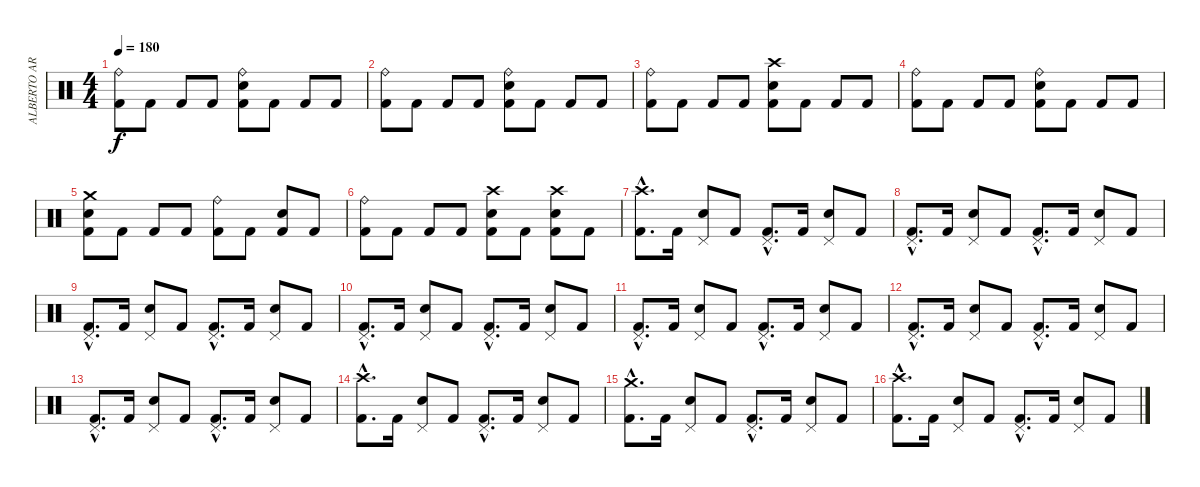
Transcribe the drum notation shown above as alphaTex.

\track ("ALBERTO ARDINES" "ALBERTO AR") {instrument percussion}
\staff {score}
\articulation defaults
\ts (4 4)
\tempo 180
\clef neutral
\ks c
("Ride (bell)" "Kick (hit) 2").8{dy f} "Kick (hit) 2".8 "Kick (hit) 2".8 "Kick (hit) 2".8 ("Ride (bell)" "Electric Snare (hit)" "Kick (hit) 2").8 "Kick (hit) 2".8 "Kick (hit) 2".8 "Kick (hit) 2".8 |
("Ride (bell)" "Kick (hit) 2").8 "Kick (hit) 2".8 "Kick (hit) 2".8 "Kick (hit) 2".8 ("Ride (bell)" "Electric Snare (hit)" "Kick (hit) 2").8 "Kick (hit) 2".8 "Kick (hit) 2".8 "Kick (hit) 2".8 |
("Ride (bell)" "Kick (hit) 2").8 "Kick (hit) 2".8 "Kick (hit) 2".8 "Kick (hit) 2".8 ("Crash high (hit)" "Electric Snare (hit)" "Kick (hit) 2").8 "Kick (hit) 2".8 "Kick (hit) 2".8 "Kick (hit) 2".8 |
("Ride (bell)" "Kick (hit) 2").8 "Kick (hit) 2".8 "Kick (hit) 2".8 "Kick (hit) 2".8 ("Ride (bell)" "Electric Snare (hit)" "Kick (hit) 2").8 "Kick (hit) 2".8 "Kick (hit) 2".8 "Kick (hit) 2".8 |
("Crash medium (hit)" "Electric Snare (hit)" "Kick (hit) 2").8 "Kick (hit) 2".8 "Kick (hit) 2".8 "Kick (hit) 2".8 ("Ride (bell)" "Kick (hit) 2").8 "Kick (hit) 2".8 ("Electric Snare (hit)" "Kick (hit) 2").8 "Kick (hit) 2".8 |
("Ride (bell)" "Kick (hit) 2").8 "Kick (hit) 2".8 "Kick (hit) 2".8 "Kick (hit) 2".8 ("Crash high (hit)" "Electric Snare (hit)" "Kick (hit) 2").8 "Kick (hit) 2".8 ("Crash high (hit)" "Electric Snare (hit)" "Kick (hit) 2").8 "Kick (hit) 2".8 |
("Crash high (hit)"{hac} "Kick (hit) 2"{hac}).8{d} "Kick (hit) 2".16 ("Pedal Hi-Hat (hit)" "Electric Snare (hit)").8 "Kick (hit) 2".8 ("Pedal Hi-Hat (hit)"{hac} "Kick (hit) 2"{hac}).8{d} "Kick (hit) 2".16 ("Pedal Hi-Hat (hit)" "Electric Snare (hit)").8 "Kick (hit) 2".8 |
("Pedal Hi-Hat (hit)"{hac} "Kick (hit) 2"{hac}).8{d} "Kick (hit) 2".16 ("Pedal Hi-Hat (hit)" "Electric Snare (hit)").8 "Kick (hit) 2".8 ("Pedal Hi-Hat (hit)"{hac} "Kick (hit) 2"{hac}).8{d} "Kick (hit) 2".16 ("Pedal Hi-Hat (hit)" "Electric Snare (hit)").8 "Kick (hit) 2".8 |
("Pedal Hi-Hat (hit)"{hac} "Kick (hit) 2"{hac}).8{d} "Kick (hit) 2".16 ("Pedal Hi-Hat (hit)" "Electric Snare (hit)").8 "Kick (hit) 2".8 ("Pedal Hi-Hat (hit)"{hac} "Kick (hit) 2"{hac}).8{d} "Kick (hit) 2".16 ("Pedal Hi-Hat (hit)" "Electric Snare (hit)").8 "Kick (hit) 2".8 |
("Pedal Hi-Hat (hit)"{hac} "Kick (hit) 2"{hac}).8{d} "Kick (hit) 2".16 ("Pedal Hi-Hat (hit)" "Electric Snare (hit)").8 "Kick (hit) 2".8 ("Pedal Hi-Hat (hit)"{hac} "Kick (hit) 2"{hac}).8{d} "Kick (hit) 2".16 ("Pedal Hi-Hat (hit)" "Electric Snare (hit)").8 "Kick (hit) 2".8 |
("Pedal Hi-Hat (hit)"{hac} "Kick (hit) 2"{hac}).8{d} "Kick (hit) 2".16 ("Pedal Hi-Hat (hit)" "Electric Snare (hit)").8 "Kick (hit) 2".8 ("Pedal Hi-Hat (hit)"{hac} "Kick (hit) 2"{hac}).8{d} "Kick (hit) 2".16 ("Pedal Hi-Hat (hit)" "Electric Snare (hit)").8 "Kick (hit) 2".8 |
("Pedal Hi-Hat (hit)"{hac} "Kick (hit) 2"{hac}).8{d} "Kick (hit) 2".16 ("Pedal Hi-Hat (hit)" "Electric Snare (hit)").8 "Kick (hit) 2".8 ("Pedal Hi-Hat (hit)"{hac} "Kick (hit) 2"{hac}).8{d} "Kick (hit) 2".16 ("Pedal Hi-Hat (hit)" "Electric Snare (hit)").8 "Kick (hit) 2".8 |
("Pedal Hi-Hat (hit)"{hac} "Kick (hit) 2"{hac}).8{d} "Kick (hit) 2".16 ("Pedal Hi-Hat (hit)" "Electric Snare (hit)").8 "Kick (hit) 2".8 ("Pedal Hi-Hat (hit)"{hac} "Kick (hit) 2"{hac}).8{d} "Kick (hit) 2".16 ("Pedal Hi-Hat (hit)" "Electric Snare (hit)").8 "Kick (hit) 2".8 |
("Crash high (hit)"{hac} "Kick (hit) 2"{hac}).8{d} "Kick (hit) 2".16 ("Pedal Hi-Hat (hit)" "Electric Snare (hit)").8 "Kick (hit) 2".8 ("Pedal Hi-Hat (hit)"{hac} "Kick (hit) 2"{hac}).8{d} "Kick (hit) 2".16 ("Pedal Hi-Hat (hit)" "Electric Snare (hit)").8 "Kick (hit) 2".8 |
("Crash medium (hit)"{hac} "Kick (hit) 2"{hac}).8{d} "Kick (hit) 2".16 ("Pedal Hi-Hat (hit)" "Electric Snare (hit)").8 "Kick (hit) 2".8 ("Pedal Hi-Hat (hit)"{hac} "Kick (hit) 2"{hac}).8{d} "Kick (hit) 2".16 ("Pedal Hi-Hat (hit)" "Electric Snare (hit)").8 "Kick (hit) 2".8 |
("Crash high (hit)"{hac} "Kick (hit) 2"{hac}).8{d} "Kick (hit) 2".16 ("Pedal Hi-Hat (hit)" "Electric Snare (hit)").8 "Kick (hit) 2".8 ("Pedal Hi-Hat (hit)"{hac} "Kick (hit) 2"{hac}).8{d} "Kick (hit) 2".16 ("Pedal Hi-Hat (hit)" "Electric Snare (hit)").8 "Kick (hit) 2".8
